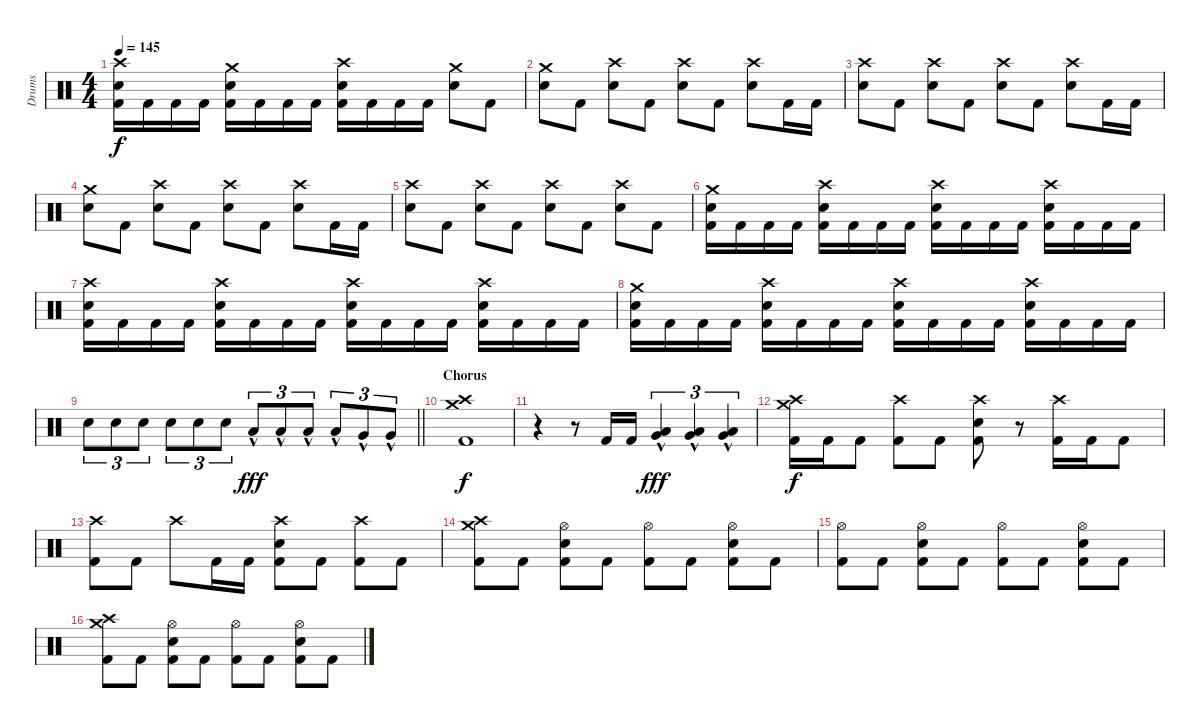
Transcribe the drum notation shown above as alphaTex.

\track ("Drums" "Drums") {instrument percussion}
\staff {score}
\articulation defaults
\ts (4 4)
\tempo 145
\clef neutral
\ks c
("Crash high (hit)" "Electric Snare (hit)" "Kick (hit) 2").16{dy f} "Kick (hit) 2".16 "Kick (hit) 2".16 "Kick (hit) 2".16 ("Crash medium (hit)" "Electric Snare (hit)" "Kick (hit) 2").16 "Kick (hit) 2".16 "Kick (hit) 2".16 "Kick (hit) 2".16 ("Crash high (hit)" "Electric Snare (hit)" "Kick (hit) 2").16 "Kick (hit) 2".16 "Kick (hit) 2".16 "Kick (hit) 2".16 ("Crash medium (hit)" "Electric Snare (hit)").8 "Kick (hit) 2".8 |
("Crash medium (hit)" "Electric Snare (hit)").8 "Kick (hit) 2".8 ("Crash high (hit)" "Electric Snare (hit)").8 "Kick (hit) 2".8 ("Crash high (hit)" "Electric Snare (hit)").8 "Kick (hit) 2".8 ("Crash high (hit)" "Electric Snare (hit)").8 "Kick (hit) 2".16 "Kick (hit) 2".16 |
("Crash high (hit)" "Electric Snare (hit)").8 "Kick (hit) 2".8 ("Crash high (hit)" "Electric Snare (hit)").8 "Kick (hit) 2".8 ("Crash high (hit)" "Electric Snare (hit)").8 "Kick (hit) 2".8 ("Crash high (hit)" "Electric Snare (hit)").8 "Kick (hit) 2".16 "Kick (hit) 2".16 |
("Crash medium (hit)" "Electric Snare (hit)").8 "Kick (hit) 2".8 ("Crash high (hit)" "Electric Snare (hit)").8 "Kick (hit) 2".8 ("Crash high (hit)" "Electric Snare (hit)").8 "Kick (hit) 2".8 ("Crash high (hit)" "Electric Snare (hit)").8 "Kick (hit) 2".16 "Kick (hit) 2".16 |
("Crash high (hit)" "Electric Snare (hit)").8 "Kick (hit) 2".8 ("Crash high (hit)" "Electric Snare (hit)").8 "Kick (hit) 2".8 ("Crash high (hit)" "Electric Snare (hit)").8 "Kick (hit) 2".8 ("Crash high (hit)" "Electric Snare (hit)").8 "Kick (hit) 2".8 |
("Crash medium (hit)" "Electric Snare (hit)" "Kick (hit) 2").16 "Kick (hit) 2".16 "Kick (hit) 2".16 "Kick (hit) 2".16 ("Crash high (hit)" "Electric Snare (hit)" "Kick (hit) 2").16 "Kick (hit) 2".16 "Kick (hit) 2".16 "Kick (hit) 2".16 ("Crash high (hit)" "Electric Snare (hit)" "Kick (hit) 2").16 "Kick (hit) 2".16 "Kick (hit) 2".16 "Kick (hit) 2".16 ("Crash high (hit)" "Electric Snare (hit)" "Kick (hit) 2").16 "Kick (hit) 2".16 "Kick (hit) 2".16 "Kick (hit) 2".16 |
("Crash high (hit)" "Electric Snare (hit)" "Kick (hit) 2").16 "Kick (hit) 2".16 "Kick (hit) 2".16 "Kick (hit) 2".16 ("Crash high (hit)" "Electric Snare (hit)" "Kick (hit) 2").16 "Kick (hit) 2".16 "Kick (hit) 2".16 "Kick (hit) 2".16 ("Crash high (hit)" "Electric Snare (hit)" "Kick (hit) 2").16 "Kick (hit) 2".16 "Kick (hit) 2".16 "Kick (hit) 2".16 ("Crash high (hit)" "Electric Snare (hit)" "Kick (hit) 2").16 "Kick (hit) 2".16 "Kick (hit) 2".16 "Kick (hit) 2".16 |
("Crash medium (hit)" "Electric Snare (hit)" "Kick (hit) 2").16 "Kick (hit) 2".16 "Kick (hit) 2".16 "Kick (hit) 2".16 ("Crash high (hit)" "Electric Snare (hit)" "Kick (hit) 2").16 "Kick (hit) 2".16 "Kick (hit) 2".16 "Kick (hit) 2".16 ("Crash high (hit)" "Electric Snare (hit)" "Kick (hit) 2").16 "Kick (hit) 2".16 "Kick (hit) 2".16 "Kick (hit) 2".16 ("Crash high (hit)" "Electric Snare (hit)" "Kick (hit) 2").16 "Kick (hit) 2".16 "Kick (hit) 2".16 "Kick (hit) 2".16 |
\barLineRight lightlight "Electric Snare (hit)".8{tu (3 2)} "Electric Snare (hit)".8{tu (3 2)} "Electric Snare (hit)".8{tu (3 2)} "Electric Snare (hit)".8{tu (3 2)} "Electric Snare (hit)".8{tu (3 2)} "Electric Snare (hit)".8{tu (3 2)} "Low Tom (hit)"{hac}.8{tu (3 2) dy fff} "Low Tom (hit)"{hac}.8{tu (3 2)} "Low Tom (hit)"{hac}.8{tu (3 2)} "Low Tom (hit)"{hac}.8{tu (3 2)} "Very Low Tom (hit)"{hac}.8{tu (3 2)} "Very Low Tom (hit)"{hac}.8{tu (3 2)}
|
\section ("" "Chorus")
("Crash high (hit)" "Crash medium (hit)" "Kick (hit) 2").1{dy f} |
r.4 r.8 "Kick (hit) 2".16 "Kick (hit) 2".16 ("Very Low Tom (hit)"{hac} "Low Floor Tom (hit)"{hac}).4{tu (3 2) dy fff} ("Very Low Tom (hit)"{hac} "Low Floor Tom (hit)"{hac}).4{tu (3 2)} ("Very Low Tom (hit)"{hac} "Low Floor Tom (hit)"{hac}).4{tu (3 2)} |
("Crash high (hit)" "Crash medium (hit)" "Kick (hit) 2").16{dy f} "Kick (hit) 2".16 "Kick (hit) 2".8 ("Crash high (hit)" "Kick (hit) 2").8 "Kick (hit) 2".8 ("Crash high (hit)" "Electric Snare (hit)" "Kick (hit) 2").8 r.8 ("Crash high (hit)" "Kick (hit) 2").16 "Kick (hit) 2".16 "Kick (hit) 2".8 |
("Crash high (hit)" "Kick (hit) 2").8 "Kick (hit) 2".8 "Crash high (hit)".8 "Kick (hit) 2".16 "Kick (hit) 2".16 ("Crash high (hit)" "Electric Snare (hit)" "Kick (hit) 2").8 "Kick (hit) 2".8 ("Crash high (hit)" "Kick (hit) 2").8 "Kick (hit) 2".8 |
("Crash high (hit)" "Crash medium (hit)" "Kick (hit) 2").8 "Kick (hit) 2".8 ("Hi-Hat (open)" "Electric Snare (hit)" "Kick (hit) 2").8 "Kick (hit) 2".8 ("Hi-Hat (open)" "Kick (hit) 2").8 "Kick (hit) 2".8 ("Hi-Hat (open)" "Electric Snare (hit)" "Kick (hit) 2").8 "Kick (hit) 2".8 |
("Hi-Hat (open)" "Kick (hit) 2").8 "Kick (hit) 2".8 ("Hi-Hat (open)" "Electric Snare (hit)" "Kick (hit) 2").8 "Kick (hit) 2".8 ("Hi-Hat (open)" "Kick (hit) 2").8 "Kick (hit) 2".8 ("Hi-Hat (open)" "Electric Snare (hit)" "Kick (hit) 2").8 "Kick (hit) 2".8 |
("Crash high (hit)" "Crash medium (hit)" "Kick (hit) 2").8 "Kick (hit) 2".8 ("Hi-Hat (open)" "Electric Snare (hit)" "Kick (hit) 2").8 "Kick (hit) 2".8 ("Hi-Hat (open)" "Kick (hit) 2").8 "Kick (hit) 2".8 ("Hi-Hat (open)" "Electric Snare (hit)" "Kick (hit) 2").8 "Kick (hit) 2".8
